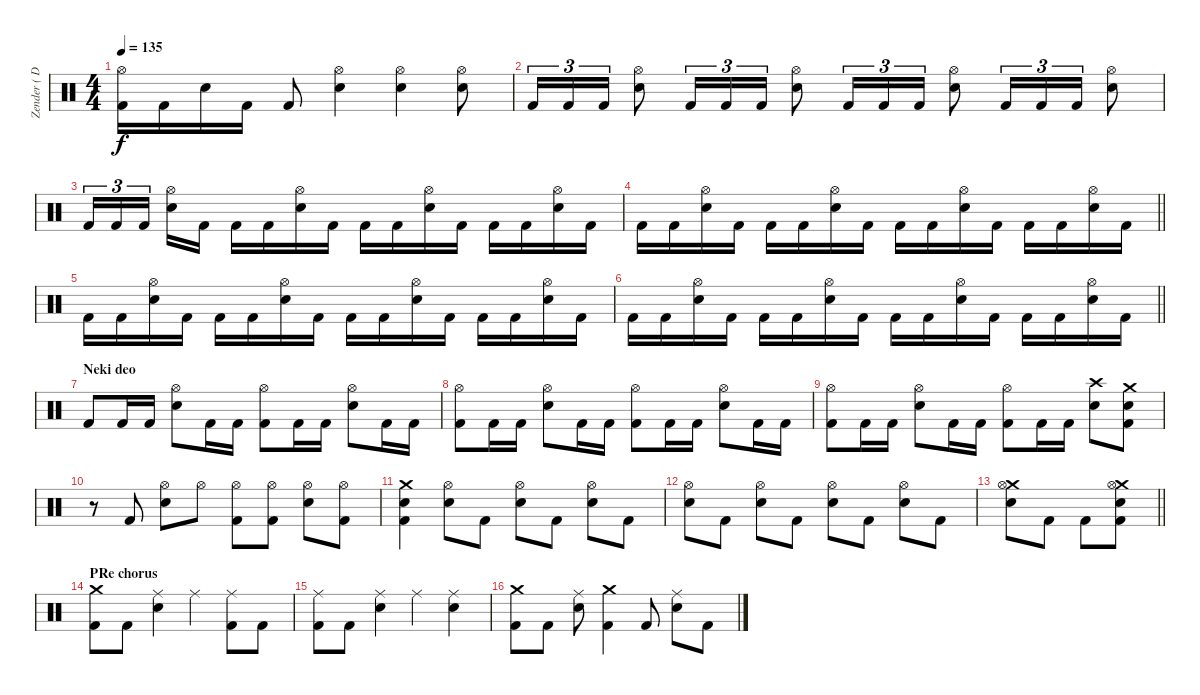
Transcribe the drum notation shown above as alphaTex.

\track ("Zender ( Drums )" "Zender ( D") {instrument percussion}
\staff {score}
\articulation defaults
\ts (4 4)
\tempo 135
\clef neutral
\ks c
("Hi-Hat (open)" "Kick (hit) 2").16{dy f} "Kick (hit) 2".16 "Electric Snare (hit)".16 "Kick (hit) 2".16 "Kick (hit) 2".8 ("Hi-Hat (open)" "Electric Snare (hit)").4 ("Hi-Hat (open)" "Electric Snare (hit)").4 ("Hi-Hat (open)" "Electric Snare (hit)").8 |
"Kick (hit) 2".16{tu (3 2)} "Kick (hit) 2".16{tu (3 2)} "Kick (hit) 2".16{tu (3 2)} ("Hi-Hat (open)" "Electric Snare (hit)").8 "Kick (hit) 2".16{tu (3 2)} "Kick (hit) 2".16{tu (3 2)} "Kick (hit) 2".16{tu (3 2)} ("Hi-Hat (open)" "Electric Snare (hit)").8 "Kick (hit) 2".16{tu (3 2)} "Kick (hit) 2".16{tu (3 2)} "Kick (hit) 2".16{tu (3 2)} ("Hi-Hat (open)" "Electric Snare (hit)").8 "Kick (hit) 2".16{tu (3 2)} "Kick (hit) 2".16{tu (3 2)} "Kick (hit) 2".16{tu (3 2)} ("Hi-Hat (open)" "Electric Snare (hit)").8 |
"Kick (hit) 2".16{tu (3 2)} "Kick (hit) 2".16{tu (3 2)} "Kick (hit) 2".16{tu (3 2) beam splitsecondary} ("Hi-Hat (open)" "Electric Snare (hit)").16 "Kick (hit) 2".16 "Kick (hit) 2".16 "Kick (hit) 2".16 ("Hi-Hat (open)" "Electric Snare (hit)").16 "Kick (hit) 2".16 "Kick (hit) 2".16 "Kick (hit) 2".16 ("Hi-Hat (open)" "Electric Snare (hit)").16 "Kick (hit) 2".16 "Kick (hit) 2".16 "Kick (hit) 2".16 ("Hi-Hat (open)" "Electric Snare (hit)").16 "Kick (hit) 2".16 |
\barLineRight lightlight "Kick (hit) 2".16 "Kick (hit) 2".16
("Hi-Hat (open)" "Electric Snare (hit)").16 "Kick (hit) 2".16 "Kick (hit) 2".16 "Kick (hit) 2".16 ("Hi-Hat (open)" "Electric Snare (hit)").16 "Kick (hit) 2".16 "Kick (hit) 2".16 "Kick (hit) 2".16 ("Hi-Hat (open)" "Electric Snare (hit)").16 "Kick (hit) 2".16 "Kick (hit) 2".16 "Kick (hit) 2".16 ("Hi-Hat (open)" "Electric Snare (hit)").16 "Kick (hit) 2".16 |
"Kick (hit) 2".16 "Kick (hit) 2".16 ("Hi-Hat (open)" "Electric Snare (hit)").16 "Kick (hit) 2".16 "Kick (hit) 2".16 "Kick (hit) 2".16 ("Hi-Hat (open)" "Electric Snare (hit)").16 "Kick (hit) 2".16 "Kick (hit) 2".16 "Kick (hit) 2".16 ("Hi-Hat (open)" "Electric Snare (hit)").16 "Kick (hit) 2".16 "Kick (hit) 2".16 "Kick (hit) 2".16 ("Hi-Hat (open)" "Electric Snare (hit)").16 "Kick (hit) 2".16 |
\barLineRight lightlight "Kick (hit) 2".16 "Kick (hit) 2".16
("Hi-Hat (open)" "Electric Snare (hit)").16 "Kick (hit) 2".16 "Kick (hit) 2".16 "Kick (hit) 2".16 ("Hi-Hat (open)" "Electric Snare (hit)").16 "Kick (hit) 2".16 "Kick (hit) 2".16 "Kick (hit) 2".16 ("Hi-Hat (open)" "Electric Snare (hit)").16 "Kick (hit) 2".16 "Kick (hit) 2".16 "Kick (hit) 2".16 ("Hi-Hat (open)" "Electric Snare (hit)").16 "Kick (hit) 2".16 |
\section ("" "Neki deo")
"Kick (hit) 2".8 "Kick (hit) 2".16 "Kick (hit) 2".16 ("Hi-Hat (open)" "Electric Snare (hit)").8 "Kick (hit) 2".16 "Kick (hit) 2".16 ("Hi-Hat (open)" "Kick (hit) 2").8 "Kick (hit) 2".16 "Kick (hit) 2".16 ("Hi-Hat (open)" "Snare (hit) 2").8 "Kick (hit) 2".16 "Kick (hit) 2".16 |
("Hi-Hat (open)" "Kick (hit) 2").8 "Kick (hit) 2".16 "Kick (hit) 2".16 ("Hi-Hat (open)" "Snare (hit) 2").8 "Kick (hit) 2".16 "Kick (hit) 2".16 ("Hi-Hat (open)" "Kick (hit) 2").8 "Kick (hit) 2".16 "Kick (hit) 2".16 ("Hi-Hat (open)" "Snare (hit) 2").8 "Kick (hit) 2".16 "Kick (hit) 2".16 |
("Hi-Hat (open)" "Kick (hit) 2").8 "Kick (hit) 2".16 "Kick (hit) 2".16 ("Hi-Hat (open)" "Snare (hit) 2").8 "Kick (hit) 2".16 "Kick (hit) 2".16 ("Hi-Hat (open)" "Kick (hit) 2").8 "Kick (hit) 2".16 "Kick (hit) 2".16 ("Crash high (hit)" "Snare (hit) 2").8 ("Crash medium (hit)" "Snare (hit) 2" "Kick (hit) 2").8 |
r.8 "Kick (hit) 2".8 ("Hi-Hat (open)" "Snare (hit) 2").8 "Hi-Hat (open)".8 ("Hi-Hat (open)" "Kick (hit) 2").8 ("Hi-Hat (open)" "Kick (hit) 2").8 ("Hi-Hat (open)" "Snare (hit) 2").8 ("Hi-Hat (open)" "Kick (hit) 2").8 |
("Crash medium (hit)" "Snare (hit) 2" "Kick (hit) 2").4 ("Hi-Hat (open)" "Snare (hit) 2").8 "Kick (hit) 2".8 ("Hi-Hat (open)" "Snare (hit) 2").8 "Kick (hit) 2".8 ("Hi-Hat (open)" "Snare (hit) 2").8 "Kick (hit) 2".8 |
("Hi-Hat (open)" "Snare (hit) 2").8 "Kick (hit) 2".8 ("Hi-Hat (open)" "Snare (hit) 2").8 "Kick (hit) 2".8 ("Hi-Hat (open)" "Snare (hit) 2").8 "Kick (hit) 2".8 ("Hi-Hat (open)" "Snare (hit) 2").8 "Kick (hit) 2".8 |
\barLineRight lightlight
("Crash medium (hit)" "Hi-Hat (open)" "Snare (hit) 2").8 "Kick (hit) 2".8 "Kick (hit) 2".8 ("Crash medium (hit)" "Hi-Hat (open)" "Snare (hit) 2" "Kick (hit) 2").8 |
\section ("" "PRe chorus")
("Crash medium (hit)" "Kick (hit) 2").8 "Kick (hit) 2".8 ("Ride (middle)" "Snare (hit) 2").4 "Ride (middle)".4 ("Ride (middle)" "Kick (hit) 2").8 "Kick (hit) 2".8 |
("Ride (middle)" "Kick (hit) 2").8 "Kick (hit) 2".8 ("Ride (middle)" "Snare (hit) 2").4 "Ride (middle)".4 ("Ride (middle)" "Snare (hit) 2").4 |
("Crash medium (hit)" "Kick (hit) 2").8 "Kick (hit) 2".8 ("Ride (middle)" "Snare (hit) 2").8 ("Crash medium (hit)" "Kick (hit) 2").4 "Kick (hit) 2".8 ("Ride (middle)" "Snare (hit) 2").8 "Kick (hit) 2".8
